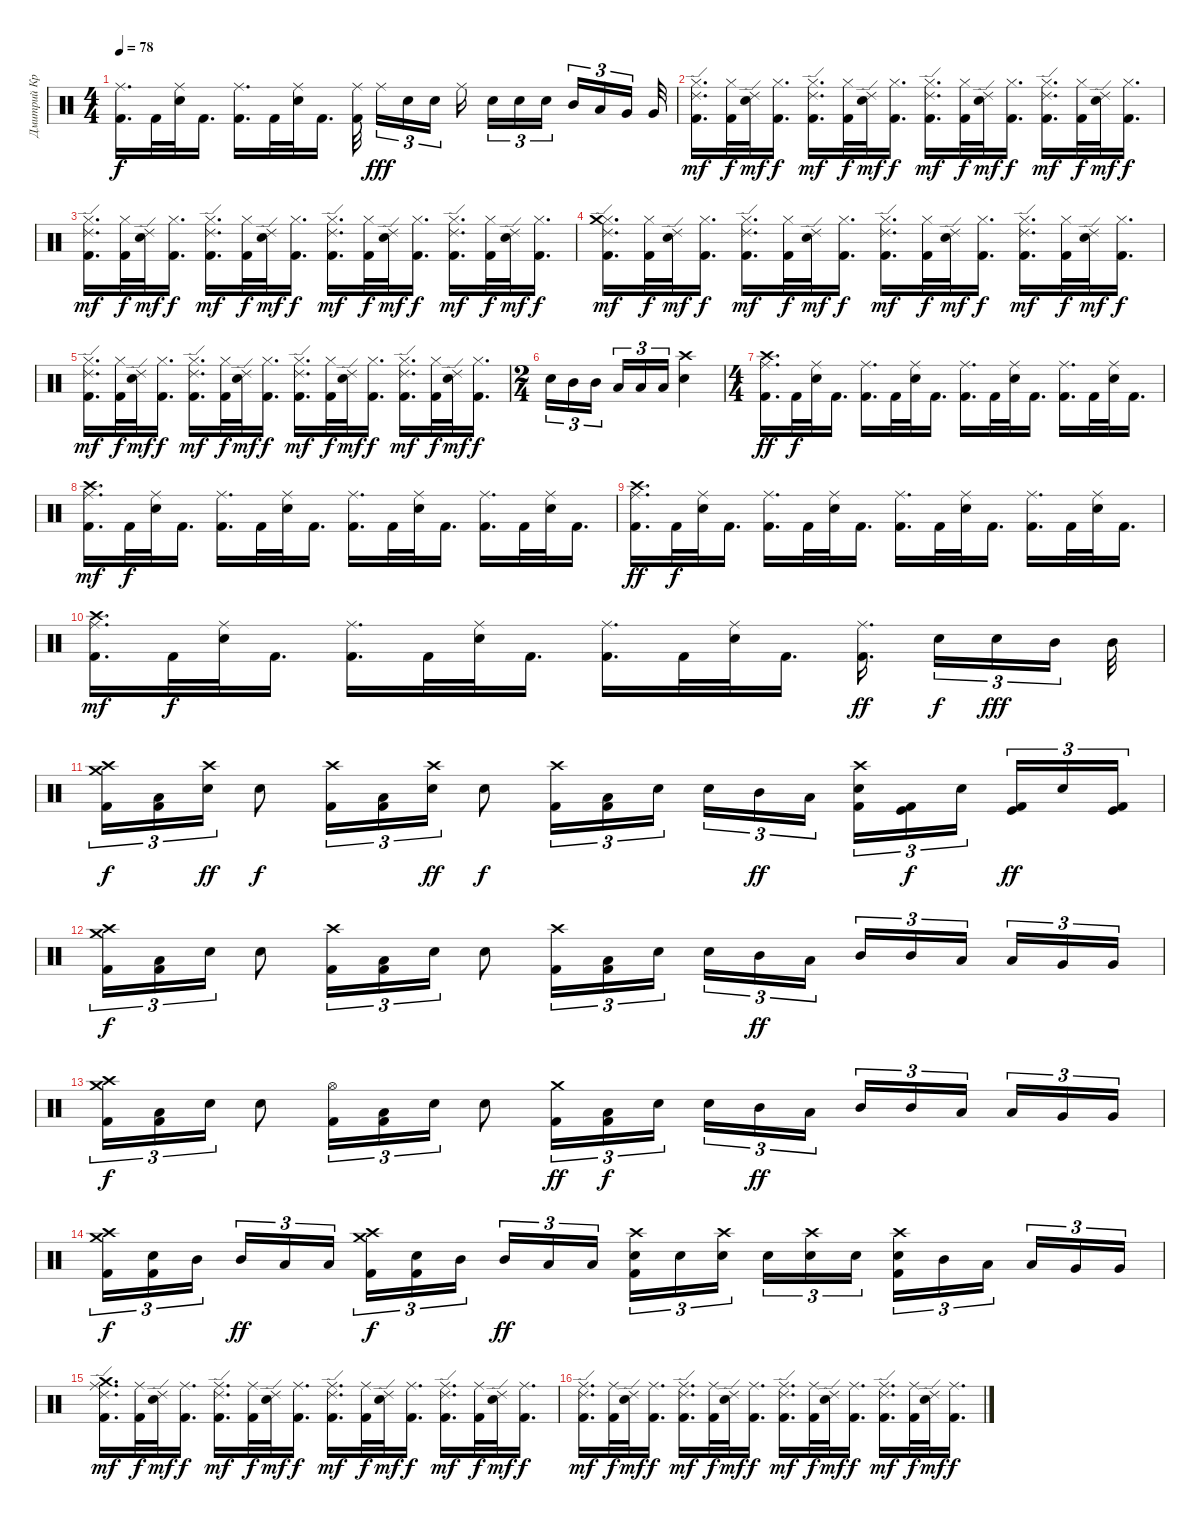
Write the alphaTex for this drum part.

\track ("Дмитрий Кривенков" "Дмитрий Кр") {instrument percussion}
\staff {score}
\articulation defaults
\ts (4 4)
\tempo 78
\clef neutral
\ks c
("Ride (middle)" "Kick (hit) 2").16{d dy f} "Kick (hit) 2".32 ("Ride (middle)" "Electric Snare (hit)").32 "Kick (hit) 2".16{d} ("Ride (middle)" "Kick (hit) 2").16{d} "Kick (hit) 2".32 ("Ride (middle)" "Electric Snare (hit)").32 "Kick (hit) 2".16{d} ("Ride (middle)" "Kick (hit) 2").32{beam splitsecondary} "Ride (middle)".16{tu (3 2) dy fff} "Electric Snare (hit)".16{tu (3 2)} "Electric Snare (hit)".16{tu (3 2) beam splitsecondary} "Ride (middle)".16 "Electric Snare (hit)".16{tu (3 2)} "Electric Snare (hit)".16{tu (3 2)} "Electric Snare (hit)".16{tu (3 2) beam splitsecondary} "Mid Tom (hit)".16{tu (3 2)} "Low Tom (hit)".16{tu (3 2)} "Very Low Tom (hit)".16{tu (3 2) beam splitsecondary} "Very Low Tom (hit)".32 |
("Hi-Hat (closed)" "Ride (edge) 2" "Kick (hit) 2").16{d dy mf} ("Hi-Hat (closed)" "Kick (hit) 2").32{dy f} ("Ride (edge) 2" "Electric Snare (hit)").32{dy mf} ("Hi-Hat (closed)" "Kick (hit) 2").16{d dy f} ("Hi-Hat (closed)" "Ride (edge) 2" "Kick (hit) 2").16{d dy mf} ("Hi-Hat (closed)" "Kick (hit) 2").32{dy f} ("Ride (edge) 2" "Electric Snare (hit)").32{dy mf} ("Hi-Hat (closed)" "Kick (hit) 2").16{d dy f} ("Hi-Hat (closed)" "Ride (edge) 2" "Kick (hit) 2").16{d dy mf} ("Hi-Hat (closed)" "Kick (hit) 2").32{dy f} ("Ride (edge) 2" "Electric Snare (hit)").32{dy mf} ("Hi-Hat (closed)" "Kick (hit) 2").16{d dy f} ("Hi-Hat (closed)" "Ride (edge) 2" "Kick (hit) 2").16{d dy mf} ("Hi-Hat (closed)" "Kick (hit) 2").32{dy f} ("Ride (edge) 2" "Electric Snare (hit)").32{dy mf} ("Hi-Hat (closed)" "Kick (hit) 2").16{d dy f} |
("Hi-Hat (closed)" "Ride (edge) 2" "Kick (hit) 2").16{d dy mf} ("Hi-Hat (closed)" "Kick (hit) 2").32{dy f} ("Ride (edge) 2" "Electric Snare (hit)").32{dy mf} ("Hi-Hat (closed)" "Kick (hit) 2").16{d dy f} ("Hi-Hat (closed)" "Ride (edge) 2" "Kick (hit) 2").16{d dy mf} ("Hi-Hat (closed)" "Kick (hit) 2").32{dy f} ("Ride (edge) 2" "Electric Snare (hit)").32{dy mf} ("Hi-Hat (closed)" "Kick (hit) 2").16{d dy f} ("Hi-Hat (closed)" "Ride (edge) 2" "Kick (hit) 2").16{d dy mf} ("Hi-Hat (closed)" "Kick (hit) 2").32{dy f} ("Ride (edge) 2" "Electric Snare (hit)").32{dy mf} ("Hi-Hat (closed)" "Kick (hit) 2").16{d dy f} ("Hi-Hat (closed)" "Ride (edge) 2" "Kick (hit) 2").16{d dy mf} ("Hi-Hat (closed)" "Kick (hit) 2").32{dy f} ("Ride (edge) 2" "Electric Snare (hit)").32{dy mf} ("Hi-Hat (closed)" "Kick (hit) 2").16{d dy f} |
("Hi-Hat (closed)" "Ride (edge) 2" "Crash medium (hit)" "Kick (hit) 2").16{d dy mf} ("Hi-Hat (closed)" "Kick (hit) 2").32{dy f} ("Ride (edge) 2" "Electric Snare (hit)").32{dy mf} ("Hi-Hat (closed)" "Kick (hit) 2").16{d dy f} ("Hi-Hat (closed)" "Ride (edge) 2" "Kick (hit) 2").16{d dy mf} ("Hi-Hat (closed)" "Kick (hit) 2").32{dy f} ("Ride (edge) 2" "Electric Snare (hit)").32{dy mf} ("Hi-Hat (closed)" "Kick (hit) 2").16{d dy f} ("Hi-Hat (closed)" "Ride (edge) 2" "Kick (hit) 2").16{d dy mf} ("Hi-Hat (closed)" "Kick (hit) 2").32{dy f} ("Ride (edge) 2" "Electric Snare (hit)").32{dy mf} ("Hi-Hat (closed)" "Kick (hit) 2").16{d dy f} ("Hi-Hat (closed)" "Ride (edge) 2" "Kick (hit) 2").16{d dy mf} ("Hi-Hat (closed)" "Kick (hit) 2").32{dy f} ("Ride (edge) 2" "Electric Snare (hit)").32{dy mf} ("Hi-Hat (closed)" "Kick (hit) 2").16{d dy f} |
("Hi-Hat (closed)" "Ride (edge) 2" "Kick (hit) 2").16{d dy mf} ("Hi-Hat (closed)" "Kick (hit) 2").32{dy f} ("Ride (edge) 2" "Electric Snare (hit)").32{dy mf} ("Hi-Hat (closed)" "Kick (hit) 2").16{d dy f} ("Hi-Hat (closed)" "Ride (edge) 2" "Kick (hit) 2").16{d dy mf} ("Hi-Hat (closed)" "Kick (hit) 2").32{dy f} ("Ride (edge) 2" "Electric Snare (hit)").32{dy mf} ("Hi-Hat (closed)" "Kick (hit) 2").16{d dy f} ("Hi-Hat (closed)" "Ride (edge) 2" "Kick (hit) 2").16{d dy mf} ("Hi-Hat (closed)" "Kick (hit) 2").32{dy f} ("Ride (edge) 2" "Electric Snare (hit)").32{dy mf} ("Hi-Hat (closed)" "Kick (hit) 2").16{d dy f} ("Hi-Hat (closed)" "Ride (edge) 2" "Kick (hit) 2").16{d dy mf} ("Hi-Hat (closed)" "Kick (hit) 2").32{dy f} ("Ride (edge) 2" "Electric Snare (hit)").32{dy mf} ("Hi-Hat (closed)" "Kick (hit) 2").16{d dy f} |
\ts (2 4)
"Electric Snare (hit)".16{tu (3 2)} "Mid Tom (hit)".16{tu (3 2)} "Mid Tom (hit)".16{tu (3 2) beam splitsecondary} "Low Tom (hit)".16{tu (3 2)} "Low Tom (hit)".16{tu (3 2)} "Low Tom (hit)".16{tu (3 2)} ("Crash high (hit)" "Electric Snare (hit)").4 |
\ts (4 4)
("Ride (middle)" "Crash high (hit)" "Kick (hit) 2").16{d dy ff volume 13} "Kick (hit) 2".32{dy f} ("Ride (middle)" "Electric Snare (hit)").32 "Kick (hit) 2".16{d} ("Ride (middle)" "Kick (hit) 2").16{d} "Kick (hit) 2".32 ("Ride (middle)" "Electric Snare (hit)").32 "Kick (hit) 2".16{d} ("Ride (middle)" "Kick (hit) 2").16{d} "Kick (hit) 2".32 ("Ride (middle)" "Electric Snare (hit)").32 "Kick (hit) 2".16{d} ("Ride (middle)" "Kick (hit) 2").16{d} "Kick (hit) 2".32 ("Ride (middle)" "Electric Snare (hit)").32 "Kick (hit) 2".16{d} |
("Ride (middle)" "Crash high (hit)" "Kick (hit) 2").16{d dy mf} "Kick (hit) 2".32{dy f} ("Ride (middle)" "Electric Snare (hit)").32 "Kick (hit) 2".16{d} ("Ride (middle)" "Kick (hit) 2").16{d} "Kick (hit) 2".32 ("Ride (middle)" "Electric Snare (hit)").32 "Kick (hit) 2".16{d} ("Ride (middle)" "Kick (hit) 2").16{d} "Kick (hit) 2".32 ("Ride (middle)" "Electric Snare (hit)").32 "Kick (hit) 2".16{d} ("Ride (middle)" "Kick (hit) 2").16{d} "Kick (hit) 2".32 ("Ride (middle)" "Electric Snare (hit)").32 "Kick (hit) 2".16{d} |
("Ride (middle)" "Crash high (hit)" "Kick (hit) 2").16{d dy ff volume 13} "Kick (hit) 2".32{dy f} ("Ride (middle)" "Electric Snare (hit)").32 "Kick (hit) 2".16{d} ("Ride (middle)" "Kick (hit) 2").16{d} "Kick (hit) 2".32 ("Ride (middle)" "Electric Snare (hit)").32 "Kick (hit) 2".16{d} ("Ride (middle)" "Kick (hit) 2").16{d} "Kick (hit) 2".32 ("Ride (middle)" "Electric Snare (hit)").32 "Kick (hit) 2".16{d} ("Ride (middle)" "Kick (hit) 2").16{d} "Kick (hit) 2".32 ("Ride (middle)" "Electric Snare (hit)").32 "Kick (hit) 2".16{d} |
("Ride (middle)" "Crash high (hit)" "Kick (hit) 2").16{d dy mf} "Kick (hit) 2".32{dy f} ("Ride (middle)" "Electric Snare (hit)").32 "Kick (hit) 2".16{d} ("Ride (middle)" "Kick (hit) 2").16{d} "Kick (hit) 2".32 ("Ride (middle)" "Electric Snare (hit)").32 "Kick (hit) 2".16{d} ("Ride (middle)" "Kick (hit) 2").16{d} "Kick (hit) 2".32 ("Ride (middle)" "Electric Snare (hit)").32 "Kick (hit) 2".16{d} ("Ride (middle)" "Kick (hit) 2").16{d dy ff beam splitsecondary} "Electric Snare (hit)".16{tu (3 2) dy f} "Electric Snare (hit)".16{tu (3 2) dy fff} "Mid Tom (hit)".16{tu (3 2) beam splitsecondary} "Mid Tom (hit)".32 |
("Crash high (hit)" "Crash medium (hit)" "Kick (hit) 2").16{tu (3 2) dy f} ("Low Tom (hit)" "Kick (hit) 2").16{tu (3 2)} ("Crash high (hit)" "Electric Snare (hit)").16{tu (3 2) dy ff} "Electric Snare (hit)".8{dy f} ("Crash high (hit)" "Kick (hit) 2").16{tu (3 2)} ("Low Tom (hit)" "Kick (hit) 2").16{tu (3 2)} ("Crash high (hit)" "Electric Snare (hit)").16{tu (3 2) dy ff} "Electric Snare (hit)".8{dy f} ("Crash high (hit)" "Kick (hit) 2").16{tu (3 2)} ("Low Tom (hit)" "Kick (hit) 2").16{tu (3 2)} "Electric Snare (hit)".16{tu (3 2) beam splitsecondary} "Electric Snare (hit)".16{tu (3 2)} "Mid Tom (hit)".16{tu (3 2) dy ff} "Low Tom (hit)".16{tu (3 2)} ("Crash high (hit)" "Electric Snare (hit)" "Kick (hit) 2").16{tu (3 2)} ("Kick (hit)" "Kick (hit) 2").16{tu (3 2) dy f} "Electric Snare (hit)".16{tu (3 2) beam splitsecondary} ("Kick (hit)" "Kick (hit) 2").16{tu (3 2) dy ff} "Electric Snare (hit)".16{tu (3 2)} ("Kick (hit)" "Kick (hit) 2").16{tu (3 2)} |
("Crash high (hit)" "Crash medium (hit)" "Kick (hit) 2").16{tu (3 2) dy f} ("Low Tom (hit)" "Kick (hit) 2").16{tu (3 2)} "Electric Snare (hit)".16{tu (3 2)} "Electric Snare (hit)".8 ("Crash high (hit)" "Kick (hit) 2").16{tu (3 2)} ("Low Tom (hit)" "Kick (hit) 2").16{tu (3 2)} "Electric Snare (hit)".16{tu (3 2)} "Electric Snare (hit)".8 ("Crash high (hit)" "Kick (hit) 2").16{tu (3 2)} ("Low Tom (hit)" "Kick (hit) 2").16{tu (3 2)} "Electric Snare (hit)".16{tu (3 2) beam splitsecondary} "Electric Snare (hit)".16{tu (3 2)} "Mid Tom (hit)".16{tu (3 2) dy ff} "Low Tom (hit)".16{tu (3 2)} "Mid Tom (hit)".16{tu (3 2)} "Mid Tom (hit)".16{tu (3 2)} "Low Tom (hit)".16{tu (3 2) beam splitsecondary} "Low Tom (hit)".16{tu (3 2)} "Very Low Tom (hit)".16{tu (3 2)} "Very Low Tom (hit)".16{tu (3 2)} |
("Crash high (hit)" "Crash medium (hit)" "Kick (hit) 2").16{tu (3 2) dy f} ("Low Tom (hit)" "Kick (hit) 2").16{tu (3 2)} "Electric Snare (hit)".16{tu (3 2)} "Electric Snare (hit)".8 ("Hi-Hat (open)" "Kick (hit) 2").16{tu (3 2)} ("Low Tom (hit)" "Kick (hit) 2").16{tu (3 2)} "Electric Snare (hit)".16{tu (3 2)} "Electric Snare (hit)".8 ("Crash medium (hit)" "Kick (hit) 2").16{tu (3 2) dy ff} ("Low Tom (hit)" "Kick (hit) 2").16{tu (3 2) dy f} "Electric Snare (hit)".16{tu (3 2) beam splitsecondary} "Electric Snare (hit)".16{tu (3 2)} "Mid Tom (hit)".16{tu (3 2) dy ff} "Low Tom (hit)".16{tu (3 2)} "Mid Tom (hit)".16{tu (3 2)} "Mid Tom (hit)".16{tu (3 2)} "Low Tom (hit)".16{tu (3 2) beam splitsecondary} "Low Tom (hit)".16{tu (3 2)} "Very Low Tom (hit)".16{tu (3 2)} "Very Low Tom (hit)".16{tu (3 2)} |
("Crash high (hit)" "Crash medium (hit)" "Kick (hit) 2").16{tu (3 2) dy f} ("Electric Snare (hit)" "Kick (hit) 2").16{tu (3 2)} "Mid Tom (hit)".16{tu (3 2) beam splitsecondary} "Mid Tom (hit)".16{tu (3 2) dy ff} "Low Tom (hit)".16{tu (3 2)} "Low Tom (hit)".16{tu (3 2)} ("Crash high (hit)" "Crash medium (hit)" "Kick (hit) 2").16{tu (3 2) dy f} ("Electric Snare (hit)" "Kick (hit) 2").16{tu (3 2)} "Mid Tom (hit)".16{tu (3 2) beam splitsecondary} "Mid Tom (hit)".16{tu (3 2) dy ff} "Low Tom (hit)".16{tu (3 2)} "Low Tom (hit)".16{tu (3 2)} ("Crash high (hit)" "Electric Snare (hit)" "Kick (hit) 2").16{tu (3 2)} "Electric Snare (hit)".16{tu (3 2)} ("Crash high (hit)" "Electric Snare (hit)").16{tu (3 2) beam splitsecondary} "Electric Snare (hit)".16{tu (3 2)} ("Crash high (hit)" "Electric Snare (hit)").16{tu (3 2)} "Electric Snare (hit)".16{tu (3 2)} ("Crash high (hit)" "Electric Snare (hit)" "Kick (hit) 2").16{tu (3 2)} "Mid Tom (hit)".16{tu (3 2)} "Low Tom (hit)".16{tu (3 2) beam splitsecondary} "Low Tom (hit)".16{tu (3 2)} "Very Low Tom (hit)".16{tu (3 2)} "Very Low Tom (hit)".16{tu (3 2)} |
("Ride (middle)" "Ride (edge) 2" "Crash medium (hit)" "Kick (hit) 2").16{d dy mf} ("Ride (middle)" "Kick (hit) 2").32{dy f} ("Ride (edge) 2" "Electric Snare (hit)").32{dy mf} ("Ride (middle)" "Kick (hit) 2").16{d dy f} ("Ride (middle)" "Ride (edge) 2" "Kick (hit) 2").16{d dy mf} ("Ride (middle)" "Kick (hit) 2").32{dy f} ("Ride (edge) 2" "Electric Snare (hit)").32{dy mf} ("Ride (middle)" "Kick (hit) 2").16{d dy f} ("Ride (middle)" "Ride (edge) 2" "Kick (hit) 2").16{d dy mf} ("Ride (middle)" "Kick (hit) 2").32{dy f} ("Ride (edge) 2" "Electric Snare (hit)").32{dy mf} ("Ride (middle)" "Kick (hit) 2").16{d dy f} ("Ride (middle)" "Ride (edge) 2" "Kick (hit) 2").16{d dy mf} ("Ride (middle)" "Kick (hit) 2").32{dy f} ("Ride (edge) 2" "Electric Snare (hit)").32{dy mf} ("Ride (middle)" "Kick (hit) 2").16{d dy f} |
("Ride (middle)" "Ride (edge) 2" "Kick (hit) 2").16{d dy mf} ("Ride (middle)" "Kick (hit) 2").32{dy f} ("Ride (edge) 2" "Electric Snare (hit)").32{dy mf} ("Ride (middle)" "Kick (hit) 2").16{d dy f} ("Ride (middle)" "Ride (edge) 2" "Kick (hit) 2").16{d dy mf} ("Ride (middle)" "Kick (hit) 2").32{dy f} ("Ride (edge) 2" "Electric Snare (hit)").32{dy mf} ("Ride (middle)" "Kick (hit) 2").16{d dy f} ("Ride (middle)" "Ride (edge) 2" "Kick (hit) 2").16{d dy mf} ("Ride (middle)" "Kick (hit) 2").32{dy f} ("Ride (edge) 2" "Electric Snare (hit)").32{dy mf} ("Ride (middle)" "Kick (hit) 2").16{d dy f} ("Ride (middle)" "Ride (edge) 2" "Kick (hit) 2").16{d dy mf} ("Ride (middle)" "Kick (hit) 2").32{dy f} ("Ride (edge) 2" "Electric Snare (hit)").32{dy mf} ("Ride (middle)" "Kick (hit) 2").16{d dy f}
